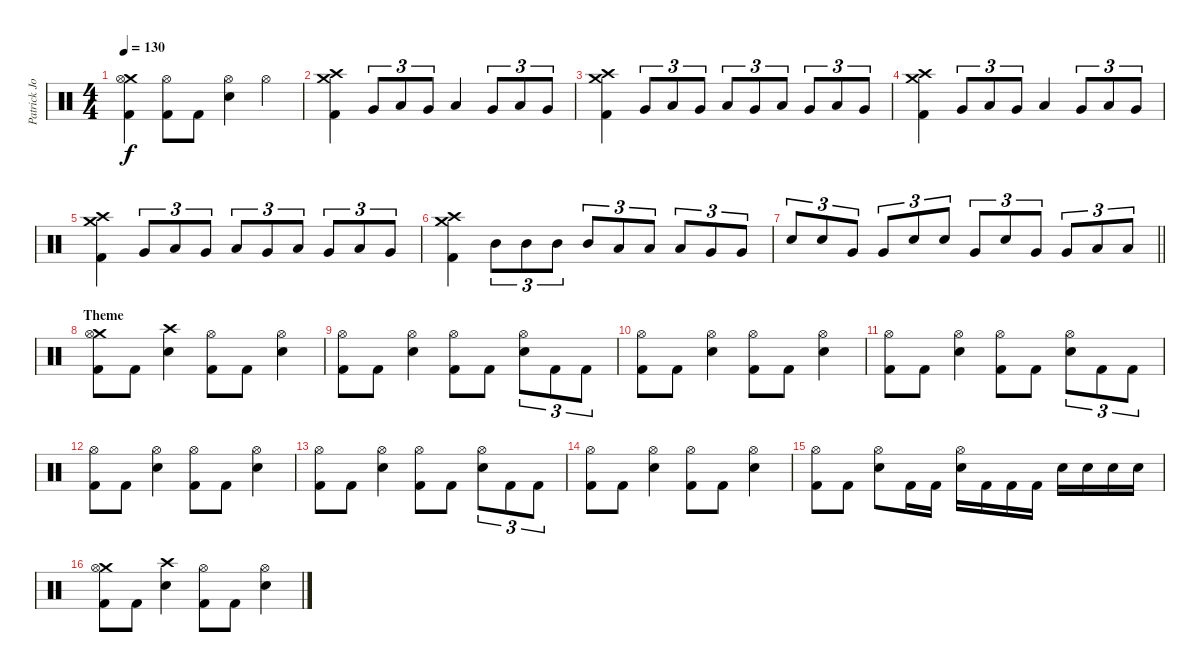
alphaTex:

\track ("Patrick Johansson " "Patrick Jo") {instrument percussion}
\staff {score}
\articulation defaults
\ts (4 4)
\tempo 130
\clef neutral
\ks c
("Crash medium (hit)" "Hi-Hat (open)" "Kick (hit) 2").4{dy f} ("Hi-Hat (open)" "Kick (hit) 2").8 "Kick (hit) 2".8 ("Hi-Hat (open)" "Snare (hit) 2").4 "Hi-Hat (open)".4 |
("Crash medium (hit)" "Crash high (hit)" "Kick (hit) 2").4 "Very Low Tom (hit)".8{tu (3 2)} "Low Floor Tom (hit)".8{tu (3 2)} "Very Low Tom (hit)".8{tu (3 2)} "Low Floor Tom (hit)".4 "Very Low Tom (hit)".8{tu (3 2)} "Low Floor Tom (hit)".8{tu (3 2)} "Very Low Tom (hit)".8{tu (3 2)} |
("Crash medium (hit)" "Crash high (hit)" "Kick (hit) 2").4 "Very Low Tom (hit)".8{tu (3 2)} "Low Floor Tom (hit)".8{tu (3 2)} "Very Low Tom (hit)".8{tu (3 2)} "Low Floor Tom (hit)".8{tu (3 2)} "Very Low Tom (hit)".8{tu (3 2)} "Low Floor Tom (hit)".8{tu (3 2)} "Very Low Tom (hit)".8{tu (3 2)} "Low Floor Tom (hit)".8{tu (3 2)} "Very Low Tom (hit)".8{tu (3 2)} |
("Crash medium (hit)" "Crash high (hit)" "Kick (hit) 2").4 "Very Low Tom (hit)".8{tu (3 2)} "Low Floor Tom (hit)".8{tu (3 2)} "Very Low Tom (hit)".8{tu (3 2)} "Low Floor Tom (hit)".4 "Very Low Tom (hit)".8{tu (3 2)} "Low Floor Tom (hit)".8{tu (3 2)} "Very Low Tom (hit)".8{tu (3 2)} |
("Crash medium (hit)" "Crash high (hit)" "Kick (hit) 2").4 "Very Low Tom (hit)".8{tu (3 2)} "Low Floor Tom (hit)".8{tu (3 2)} "Very Low Tom (hit)".8{tu (3 2)} "Low Floor Tom (hit)".8{tu (3 2)} "Very Low Tom (hit)".8{tu (3 2)} "Low Floor Tom (hit)".8{tu (3 2)} "Very Low Tom (hit)".8{tu (3 2)} "Low Floor Tom (hit)".8{tu (3 2)} "Very Low Tom (hit)".8{tu (3 2)} |
("Crash medium (hit)" "Crash high (hit)" "Kick (hit) 2").4 "Mid Tom (hit)".8{tu (3 2)} "Mid Tom (hit)".8{tu (3 2)} "Mid Tom (hit)".8{tu (3 2)} "Mid Tom (hit)".8{tu (3 2)} "Low Tom (hit)".8{tu (3 2)} "Low Tom (hit)".8{tu (3 2)} "Low Tom (hit)".8{tu (3 2)} "Very Low Tom (hit)".8{tu (3 2)} "Very Low Tom (hit)".8{tu (3 2)} |
\barLineRight lightlight "Snare (hit) 2".8{tu (3 2)} "Snare (hit) 2".8{tu (3 2)} "Very Low Tom (hit)".8{tu (3 2)} "Very Low Tom (hit)".8{tu (3 2)} "Snare (hit) 2".8{tu (3 2)} "Snare (hit) 2".8{tu (3 2)} "Very Low Tom (hit)".8{tu (3 2)} "Snare (hit) 2".8{tu (3 2)} "Very Low Tom (hit)".8{tu (3 2)} "Very Low Tom (hit)".8{tu (3 2)} "Low Floor Tom (hit)".8{tu (3 2)} "Low Floor Tom (hit)".8{tu (3 2)}
|
\section ("" "Theme")
("Crash medium (hit)" "Hi-Hat (open)" "Kick (hit) 2").8 "Kick (hit) 2".8 ("Crash high (hit)" "Snare (hit) 2").4 ("Hi-Hat (open)" "Kick (hit) 2").8 "Kick (hit) 2".8 ("Hi-Hat (open)" "Snare (hit) 2").4 |
("Hi-Hat (open)" "Kick (hit) 2").8 "Kick (hit) 2".8 ("Hi-Hat (open)" "Snare (hit) 2").4 ("Hi-Hat (open)" "Kick (hit) 2").8 "Kick (hit) 2".8 ("Hi-Hat (open)" "Snare (hit) 2").8{tu (3 2)} "Kick (hit) 2".8{tu (3 2)} "Kick (hit) 2".8{tu (3 2)} |
("Hi-Hat (open)" "Kick (hit) 2").8 "Kick (hit) 2".8 ("Hi-Hat (open)" "Snare (hit) 2").4 ("Hi-Hat (open)" "Kick (hit) 2").8 "Kick (hit) 2".8 ("Hi-Hat (open)" "Snare (hit) 2").4 |
("Hi-Hat (open)" "Kick (hit) 2").8 "Kick (hit) 2".8 ("Hi-Hat (open)" "Snare (hit) 2").4 ("Hi-Hat (open)" "Kick (hit) 2").8 "Kick (hit) 2".8 ("Hi-Hat (open)" "Snare (hit) 2").8{tu (3 2)} "Kick (hit) 2".8{tu (3 2)} "Kick (hit) 2".8{tu (3 2)} |
("Hi-Hat (open)" "Kick (hit) 2").8 "Kick (hit) 2".8 ("Hi-Hat (open)" "Snare (hit) 2").4 ("Hi-Hat (open)" "Kick (hit) 2").8 "Kick (hit) 2".8 ("Hi-Hat (open)" "Snare (hit) 2").4 |
("Hi-Hat (open)" "Kick (hit) 2").8 "Kick (hit) 2".8 ("Hi-Hat (open)" "Snare (hit) 2").4 ("Hi-Hat (open)" "Kick (hit) 2").8 "Kick (hit) 2".8 ("Hi-Hat (open)" "Snare (hit) 2").8{tu (3 2)} "Kick (hit) 2".8{tu (3 2)} "Kick (hit) 2".8{tu (3 2)} |
("Hi-Hat (open)" "Kick (hit) 2").8 "Kick (hit) 2".8 ("Hi-Hat (open)" "Snare (hit) 2").4 ("Hi-Hat (open)" "Kick (hit) 2").8 "Kick (hit) 2".8 ("Hi-Hat (open)" "Snare (hit) 2").4 |
("Hi-Hat (open)" "Kick (hit) 2").8 "Kick (hit) 2".8 ("Hi-Hat (open)" "Snare (hit) 2").8 "Kick (hit) 2".16 "Kick (hit) 2".16 ("Hi-Hat (open)" "Snare (hit) 2").16 "Kick (hit) 2".16 "Kick (hit) 2".16 "Kick (hit) 2".16 "Snare (hit) 2".16 "Snare (hit) 2".16 "Snare (hit) 2".16 "Snare (hit) 2".16 |
("Crash medium (hit)" "Hi-Hat (open)" "Kick (hit) 2").8 "Kick (hit) 2".8 ("Crash high (hit)" "Snare (hit) 2").4 ("Hi-Hat (open)" "Kick (hit) 2").8 "Kick (hit) 2".8 ("Hi-Hat (open)" "Snare (hit) 2").4
